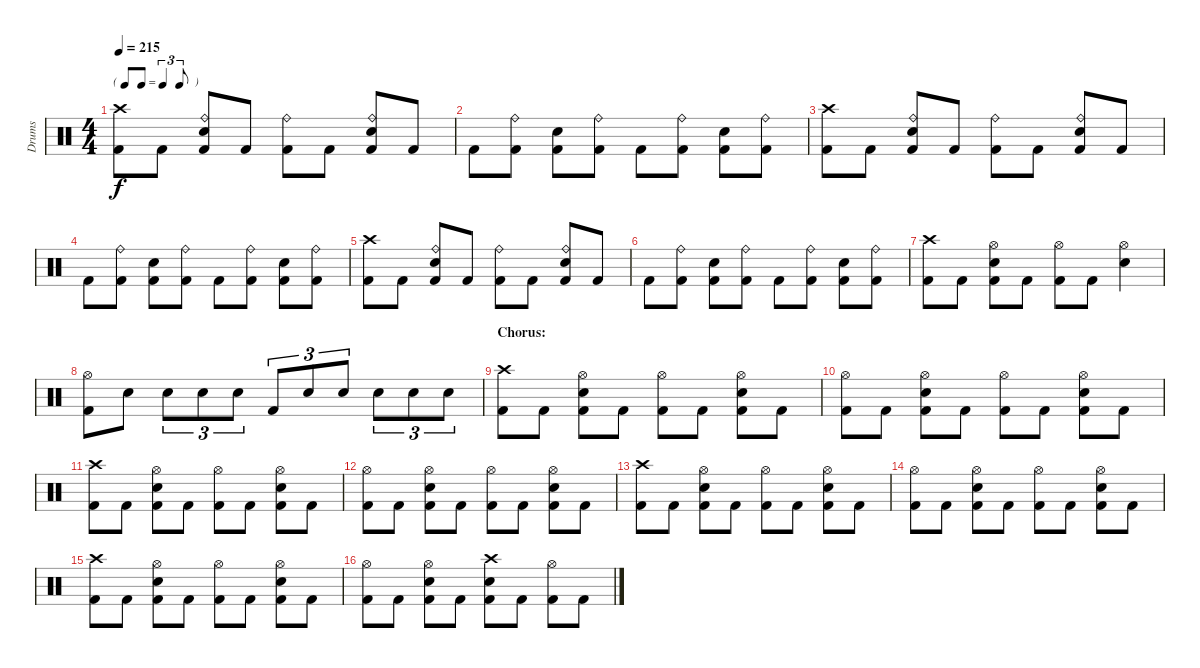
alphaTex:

\track ("Drums" "Drums") {instrument percussion}
\staff {score}
\articulation defaults
\ts (4 4)
\tf triplet8th
\tempo 215
\clef neutral
\ks c
("Crash high (hit)" "Kick (hit) 2").8{dy f} "Kick (hit) 2".8 ("Ride (bell)" "Electric Snare (hit)" "Kick (hit) 2").8 "Kick (hit) 2".8 ("Ride (bell)" "Kick (hit) 2").8 "Kick (hit) 2".8 ("Ride (bell)" "Electric Snare (hit)" "Kick (hit) 2").8 "Kick (hit) 2".8 |
"Kick (hit) 2".8 ("Ride (bell)" "Kick (hit) 2").8 ("Electric Snare (hit)" "Kick (hit) 2").8 ("Ride (bell)" "Kick (hit) 2").8 "Kick (hit) 2".8 ("Ride (bell)" "Kick (hit) 2").8 ("Electric Snare (hit)" "Kick (hit) 2").8 ("Ride (bell)" "Kick (hit) 2").8 |
("Crash high (hit)" "Kick (hit) 2").8 "Kick (hit) 2".8 ("Ride (bell)" "Electric Snare (hit)" "Kick (hit) 2").8 "Kick (hit) 2".8 ("Ride (bell)" "Kick (hit) 2").8 "Kick (hit) 2".8 ("Ride (bell)" "Electric Snare (hit)" "Kick (hit) 2").8 "Kick (hit) 2".8 |
"Kick (hit) 2".8 ("Ride (bell)" "Kick (hit) 2").8 ("Electric Snare (hit)" "Kick (hit) 2").8 ("Ride (bell)" "Kick (hit) 2").8 "Kick (hit) 2".8 ("Ride (bell)" "Kick (hit) 2").8 ("Electric Snare (hit)" "Kick (hit) 2").8 ("Ride (bell)" "Kick (hit) 2").8 |
("Crash high (hit)" "Kick (hit) 2").8 "Kick (hit) 2".8 ("Ride (bell)" "Electric Snare (hit)" "Kick (hit) 2").8 "Kick (hit) 2".8 ("Ride (bell)" "Kick (hit) 2").8 "Kick (hit) 2".8 ("Ride (bell)" "Electric Snare (hit)" "Kick (hit) 2").8 "Kick (hit) 2".8 |
"Kick (hit) 2".8 ("Ride (bell)" "Kick (hit) 2").8 ("Electric Snare (hit)" "Kick (hit) 2").8 ("Ride (bell)" "Kick (hit) 2").8 "Kick (hit) 2".8 ("Ride (bell)" "Kick (hit) 2").8 ("Electric Snare (hit)" "Kick (hit) 2").8 ("Ride (bell)" "Kick (hit) 2").8 |
("Crash high (hit)" "Kick (hit) 2").8 "Kick (hit) 2".8 ("Hi-Hat (open)" "Electric Snare (hit)" "Kick (hit) 2").8 "Kick (hit) 2".8 ("Hi-Hat (open)" "Kick (hit) 2").8 "Kick (hit) 2".8 ("Hi-Hat (open)" "Electric Snare (hit)").4 |
("Hi-Hat (open)" "Kick (hit) 2").8 "Electric Snare (hit)".8 "Electric Snare (hit)".8{tu (3 2)} "Electric Snare (hit)".8{tu (3 2)} "Electric Snare (hit)".8{tu (3 2)} "Kick (hit) 2".8{tu (3 2)} "Electric Snare (hit)".8{tu (3 2)} "Electric Snare (hit)".8{tu (3 2)} "Electric Snare (hit)".8{tu (3 2)} "Electric Snare (hit)".8{tu (3 2)} "Electric Snare (hit)".8{tu (3 2)} |
\section ("" "Chorus:")
("Crash high (hit)" "Kick (hit) 2").8 "Kick (hit) 2".8 ("Hi-Hat (open)" "Electric Snare (hit)" "Kick (hit) 2").8 "Kick (hit) 2".8 ("Hi-Hat (open)" "Kick (hit) 2").8 "Kick (hit) 2".8 ("Hi-Hat (open)" "Electric Snare (hit)" "Kick (hit) 2").8 "Kick (hit) 2".8 |
("Hi-Hat (open)" "Kick (hit) 2").8 "Kick (hit) 2".8 ("Hi-Hat (open)" "Electric Snare (hit)" "Kick (hit) 2").8 "Kick (hit) 2".8 ("Hi-Hat (open)" "Kick (hit) 2").8 "Kick (hit) 2".8 ("Hi-Hat (open)" "Electric Snare (hit)" "Kick (hit) 2").8 "Kick (hit) 2".8 |
("Crash high (hit)" "Kick (hit) 2").8 "Kick (hit) 2".8 ("Hi-Hat (open)" "Electric Snare (hit)" "Kick (hit) 2").8 "Kick (hit) 2".8 ("Hi-Hat (open)" "Kick (hit) 2").8 "Kick (hit) 2".8 ("Hi-Hat (open)" "Electric Snare (hit)" "Kick (hit) 2").8 "Kick (hit) 2".8 |
("Hi-Hat (open)" "Kick (hit) 2").8 "Kick (hit) 2".8 ("Hi-Hat (open)" "Electric Snare (hit)" "Kick (hit) 2").8 "Kick (hit) 2".8 ("Hi-Hat (open)" "Kick (hit) 2").8 "Kick (hit) 2".8 ("Hi-Hat (open)" "Electric Snare (hit)" "Kick (hit) 2").8 "Kick (hit) 2".8 |
("Crash high (hit)" "Kick (hit) 2").8 "Kick (hit) 2".8 ("Hi-Hat (open)" "Electric Snare (hit)" "Kick (hit) 2").8 "Kick (hit) 2".8 ("Hi-Hat (open)" "Kick (hit) 2").8 "Kick (hit) 2".8 ("Hi-Hat (open)" "Electric Snare (hit)" "Kick (hit) 2").8 "Kick (hit) 2".8 |
("Hi-Hat (open)" "Kick (hit) 2").8 "Kick (hit) 2".8 ("Hi-Hat (open)" "Electric Snare (hit)" "Kick (hit) 2").8 "Kick (hit) 2".8 ("Hi-Hat (open)" "Kick (hit) 2").8 "Kick (hit) 2".8 ("Hi-Hat (open)" "Electric Snare (hit)" "Kick (hit) 2").8 "Kick (hit) 2".8 |
("Crash high (hit)" "Kick (hit) 2").8 "Kick (hit) 2".8 ("Hi-Hat (open)" "Electric Snare (hit)" "Kick (hit) 2").8 "Kick (hit) 2".8 ("Hi-Hat (open)" "Kick (hit) 2").8 "Kick (hit) 2".8 ("Hi-Hat (open)" "Electric Snare (hit)" "Kick (hit) 2").8 "Kick (hit) 2".8 |
("Hi-Hat (open)" "Kick (hit) 2").8 "Kick (hit) 2".8 ("Hi-Hat (open)" "Electric Snare (hit)" "Kick (hit) 2").8 "Kick (hit) 2".8 ("Crash high (hit)" "Electric Snare (hit)" "Kick (hit) 2").8 "Kick (hit) 2".8 ("Hi-Hat (open)" "Kick (hit) 2").8 "Kick (hit) 2".8
